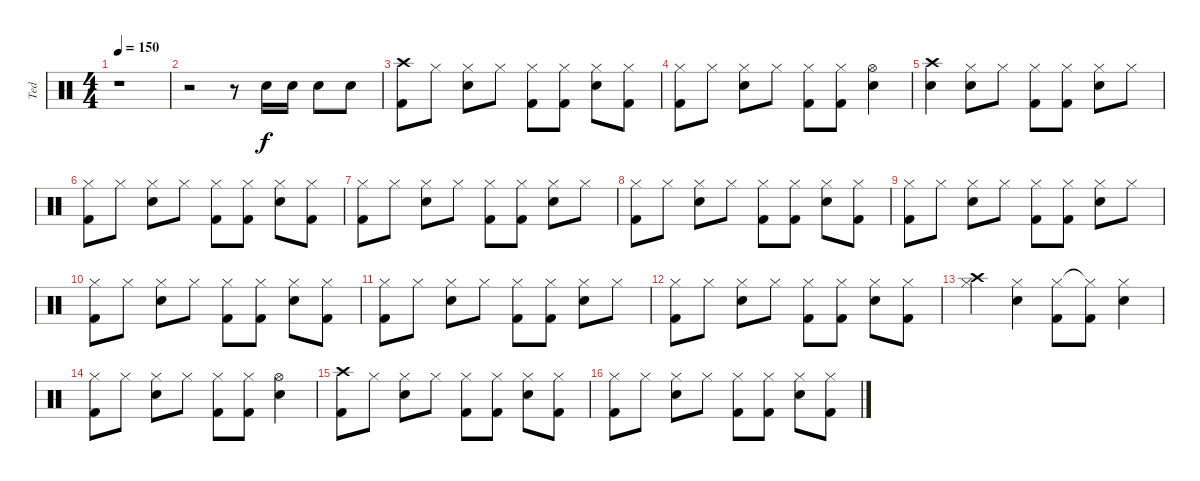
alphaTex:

\track ("Ted" "Ted") {instrument percussion}
\staff {score}
\articulation defaults
\ts (4 4)
\tempo 150
\clef neutral
\ks c
r.1{dy f} |
r.2 r.8 "Electric Snare (hit)".16 "Electric Snare (hit)".16 "Electric Snare (hit)".8 "Electric Snare (hit)".8 |
("Crash high (hit)" "Kick (hit) 2").8 "Hi-Hat (closed)".8 ("Hi-Hat (closed)" "Electric Snare (hit)").8 "Hi-Hat (closed)".8 ("Hi-Hat (closed)" "Kick (hit) 2").8 ("Hi-Hat (closed)" "Kick (hit) 2").8 ("Hi-Hat (closed)" "Electric Snare (hit)").8 ("Hi-Hat (closed)" "Kick (hit) 2").8 |
("Hi-Hat (closed)" "Kick (hit) 2").8 "Hi-Hat (closed)".8 ("Hi-Hat (closed)" "Electric Snare (hit)").8 "Hi-Hat (closed)".8 ("Hi-Hat (closed)" "Kick (hit) 2").8 ("Hi-Hat (closed)" "Kick (hit) 2").8 ("Hi-Hat (open)" "Electric Snare (hit)").4 |
("Crash high (hit)" "Electric Snare (hit)").4 ("Hi-Hat (closed)" "Electric Snare (hit)").8 "Hi-Hat (closed)".8 ("Hi-Hat (closed)" "Kick (hit) 2").8 ("Hi-Hat (closed)" "Kick (hit) 2").8 ("Hi-Hat (closed)" "Electric Snare (hit)").8 "Hi-Hat (closed)".8 |
("Hi-Hat (closed)" "Kick (hit) 2").8 "Hi-Hat (closed)".8 ("Hi-Hat (closed)" "Electric Snare (hit)").8 "Hi-Hat (closed)".8 ("Hi-Hat (closed)" "Kick (hit) 2").8 ("Hi-Hat (closed)" "Kick (hit) 2").8 ("Hi-Hat (closed)" "Electric Snare (hit)").8 ("Hi-Hat (closed)" "Kick (hit) 2").8 |
("Hi-Hat (closed)" "Kick (hit) 2").8 "Hi-Hat (closed)".8 ("Hi-Hat (closed)" "Electric Snare (hit)").8 "Hi-Hat (closed)".8 ("Hi-Hat (closed)" "Kick (hit) 2").8 ("Hi-Hat (closed)" "Kick (hit) 2").8 ("Hi-Hat (closed)" "Electric Snare (hit)").8 "Hi-Hat (closed)".8 |
("Hi-Hat (closed)" "Kick (hit) 2").8 "Hi-Hat (closed)".8 ("Hi-Hat (closed)" "Electric Snare (hit)").8 "Hi-Hat (closed)".8 ("Hi-Hat (closed)" "Kick (hit) 2").8 ("Hi-Hat (closed)" "Kick (hit) 2").8 ("Hi-Hat (closed)" "Electric Snare (hit)").8 ("Hi-Hat (closed)" "Kick (hit) 2").8 |
("Hi-Hat (closed)" "Kick (hit) 2").8 "Hi-Hat (closed)".8 ("Hi-Hat (closed)" "Electric Snare (hit)").8 "Hi-Hat (closed)".8 ("Hi-Hat (closed)" "Kick (hit) 2").8 ("Hi-Hat (closed)" "Kick (hit) 2").8 ("Hi-Hat (closed)" "Electric Snare (hit)").8 "Hi-Hat (closed)".8 |
("Hi-Hat (closed)" "Kick (hit) 2").8 "Hi-Hat (closed)".8 ("Hi-Hat (closed)" "Electric Snare (hit)").8 "Hi-Hat (closed)".8 ("Hi-Hat (closed)" "Kick (hit) 2").8 ("Hi-Hat (closed)" "Kick (hit) 2").8 ("Hi-Hat (closed)" "Electric Snare (hit)").8 ("Hi-Hat (closed)" "Kick (hit) 2").8 |
("Hi-Hat (closed)" "Kick (hit) 2").8 "Hi-Hat (closed)".8 ("Hi-Hat (closed)" "Electric Snare (hit)").8 "Hi-Hat (closed)".8 ("Hi-Hat (closed)" "Kick (hit) 2").8 ("Hi-Hat (closed)" "Kick (hit) 2").8 ("Hi-Hat (closed)" "Electric Snare (hit)").8 "Hi-Hat (closed)".8 |
("Hi-Hat (closed)" "Kick (hit) 2").8 "Hi-Hat (closed)".8 ("Hi-Hat (closed)" "Electric Snare (hit)").8 "Hi-Hat (closed)".8 ("Hi-Hat (closed)" "Kick (hit) 2").8 ("Hi-Hat (closed)" "Kick (hit) 2").8 ("Hi-Hat (closed)" "Electric Snare (hit)").8 ("Hi-Hat (closed)" "Kick (hit) 2").8 |
("Crash high (hit)" "Hi-Hat (closed)").4 ("Hi-Hat (closed)" "Electric Snare (hit)").4 ("Hi-Hat (closed)" "Kick (hit) 2").8 ("Hi-Hat (closed)"{t} "Kick (hit) 2").8 ("Hi-Hat (closed)" "Electric Snare (hit)").4 |
("Hi-Hat (closed)" "Kick (hit) 2").8 "Hi-Hat (closed)".8 ("Hi-Hat (closed)" "Electric Snare (hit)").8 "Hi-Hat (closed)".8 ("Hi-Hat (closed)" "Kick (hit) 2").8 ("Hi-Hat (closed)" "Kick (hit) 2").8 ("Hi-Hat (open)" "Electric Snare (hit)").4 |
("Crash high (hit)" "Kick (hit) 2").8 "Hi-Hat (closed)".8 ("Hi-Hat (closed)" "Electric Snare (hit)").8 "Hi-Hat (closed)".8 ("Hi-Hat (closed)" "Kick (hit) 2").8 ("Hi-Hat (closed)" "Kick (hit) 2").8 ("Hi-Hat (closed)" "Electric Snare (hit)").8 ("Hi-Hat (closed)" "Kick (hit) 2").8 |
("Hi-Hat (closed)" "Kick (hit) 2").8 "Hi-Hat (closed)".8 ("Hi-Hat (closed)" "Electric Snare (hit)").8 "Hi-Hat (closed)".8 ("Hi-Hat (closed)" "Kick (hit) 2").8 ("Hi-Hat (closed)" "Kick (hit) 2").8 ("Hi-Hat (closed)" "Electric Snare (hit)").8 ("Hi-Hat (closed)" "Kick (hit) 2").8
